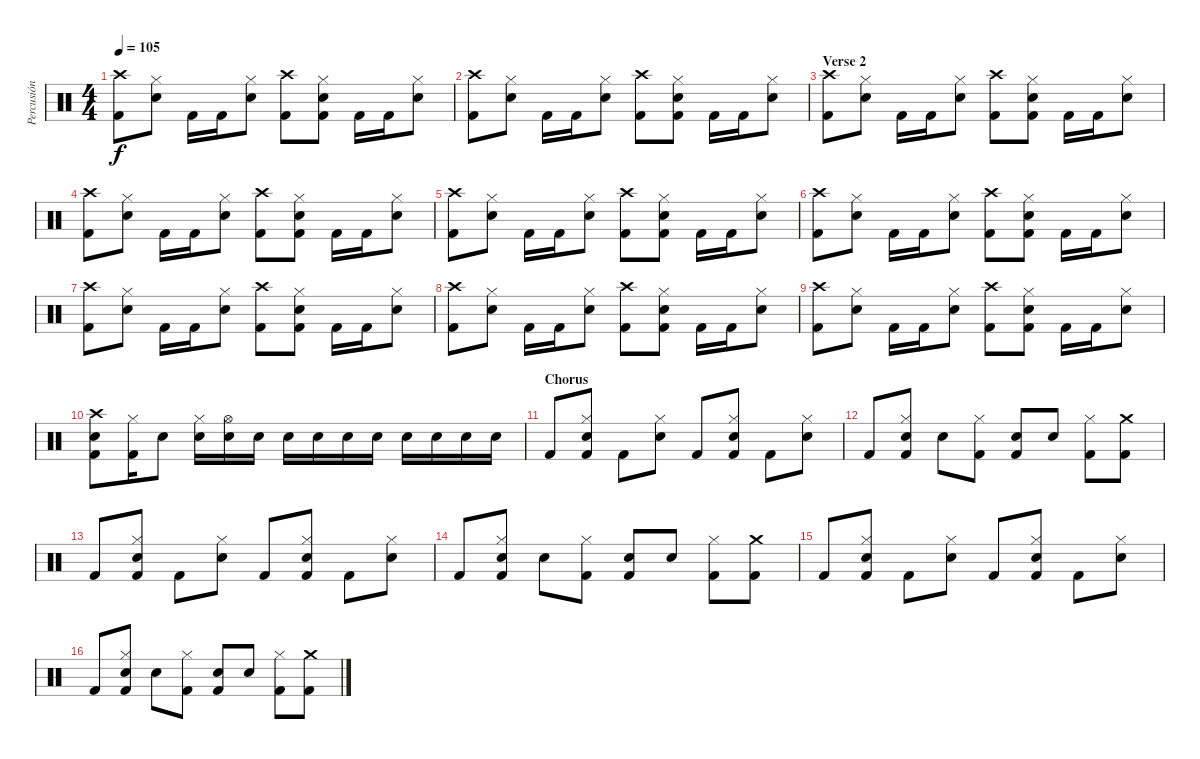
\track ("Percusión" "Percusión") {instrument percussion}
\staff {score}
\articulation defaults
\ts (4 4)
\tempo 105
\clef neutral
\ks c
("Crash high (hit)" "Kick (hit) 2").8{dy f} ("Hi-Hat (closed)" "Snare (hit) 2").8 "Kick (hit) 2".16 "Kick (hit) 2".16 ("Hi-Hat (closed)" "Snare (hit) 2").8 ("Crash high (hit)" "Kick (hit) 2").8 ("Hi-Hat (closed)" "Snare (hit) 2" "Kick (hit) 2").8 "Kick (hit) 2".16 "Kick (hit) 2".16 ("Hi-Hat (closed)" "Snare (hit) 2").8 |
("Crash high (hit)" "Kick (hit) 2").8 ("Hi-Hat (closed)" "Snare (hit) 2").8 "Kick (hit) 2".16 "Kick (hit) 2".16 ("Hi-Hat (closed)" "Snare (hit) 2").8 ("Crash high (hit)" "Kick (hit) 2").8 ("Hi-Hat (closed)" "Snare (hit) 2" "Kick (hit) 2").8 "Kick (hit) 2".16 "Kick (hit) 2".16 ("Hi-Hat (closed)" "Snare (hit) 2").8 |
\section ("" "Verse 2")
("Crash high (hit)" "Kick (hit) 2").8 ("Hi-Hat (closed)" "Snare (hit) 2").8 "Kick (hit) 2".16 "Kick (hit) 2".16 ("Hi-Hat (closed)" "Snare (hit) 2").8 ("Crash high (hit)" "Kick (hit) 2").8 ("Hi-Hat (closed)" "Snare (hit) 2" "Kick (hit) 2").8 "Kick (hit) 2".16 "Kick (hit) 2".16 ("Hi-Hat (closed)" "Snare (hit) 2").8 |
("Crash high (hit)" "Kick (hit) 2").8 ("Hi-Hat (closed)" "Snare (hit) 2").8 "Kick (hit) 2".16 "Kick (hit) 2".16 ("Hi-Hat (closed)" "Snare (hit) 2").8 ("Crash high (hit)" "Kick (hit) 2").8 ("Hi-Hat (closed)" "Snare (hit) 2" "Kick (hit) 2").8 "Kick (hit) 2".16 "Kick (hit) 2".16 ("Hi-Hat (closed)" "Snare (hit) 2").8 |
("Crash high (hit)" "Kick (hit) 2").8 ("Hi-Hat (closed)" "Snare (hit) 2").8 "Kick (hit) 2".16 "Kick (hit) 2".16 ("Hi-Hat (closed)" "Snare (hit) 2").8 ("Crash high (hit)" "Kick (hit) 2").8 ("Hi-Hat (closed)" "Snare (hit) 2" "Kick (hit) 2").8 "Kick (hit) 2".16 "Kick (hit) 2".16 ("Hi-Hat (closed)" "Snare (hit) 2").8 |
("Crash high (hit)" "Kick (hit) 2").8 ("Hi-Hat (closed)" "Snare (hit) 2").8 "Kick (hit) 2".16 "Kick (hit) 2".16 ("Hi-Hat (closed)" "Snare (hit) 2").8 ("Crash high (hit)" "Kick (hit) 2").8 ("Hi-Hat (closed)" "Snare (hit) 2" "Kick (hit) 2").8 "Kick (hit) 2".16 "Kick (hit) 2".16 ("Hi-Hat (closed)" "Snare (hit) 2").8 |
("Crash high (hit)" "Kick (hit) 2").8 ("Hi-Hat (closed)" "Snare (hit) 2").8 "Kick (hit) 2".16 "Kick (hit) 2".16 ("Hi-Hat (closed)" "Snare (hit) 2").8 ("Crash high (hit)" "Kick (hit) 2").8 ("Hi-Hat (closed)" "Snare (hit) 2" "Kick (hit) 2").8 "Kick (hit) 2".16 "Kick (hit) 2".16 ("Hi-Hat (closed)" "Snare (hit) 2").8 |
("Crash high (hit)" "Kick (hit) 2").8 ("Hi-Hat (closed)" "Snare (hit) 2").8 "Kick (hit) 2".16 "Kick (hit) 2".16 ("Hi-Hat (closed)" "Snare (hit) 2").8 ("Crash high (hit)" "Kick (hit) 2").8 ("Hi-Hat (closed)" "Snare (hit) 2" "Kick (hit) 2").8 "Kick (hit) 2".16 "Kick (hit) 2".16 ("Hi-Hat (closed)" "Snare (hit) 2").8 |
("Crash high (hit)" "Kick (hit) 2").8 ("Hi-Hat (closed)" "Snare (hit) 2").8 "Kick (hit) 2".16 "Kick (hit) 2".16 ("Hi-Hat (closed)" "Snare (hit) 2").8 ("Crash high (hit)" "Kick (hit) 2").8 ("Hi-Hat (closed)" "Snare (hit) 2" "Kick (hit) 2").8 "Kick (hit) 2".16 "Kick (hit) 2".16 ("Hi-Hat (closed)" "Snare (hit) 2").8 |
("Crash high (hit)" "Snare (hit) 2" "Kick (hit) 2").8 ("Hi-Hat (closed)" "Kick (hit) 2").16 "Snare (hit) 2".8 ("Hi-Hat (closed)" "Snare (hit) 2").16 ("Hi-Hat (open)" "Snare (hit) 2").16 "Snare (hit) 2".16 "Snare (hit) 2".16 "Snare (hit) 2".16 "Snare (hit) 2".16 "Snare (hit) 2".16 "Snare (hit) 2".16 "Snare (hit) 2".16 "Snare (hit) 2".16 "Snare (hit) 2".16 |
\section ("" "Chorus")
"Kick (hit) 2".8 ("Hi-Hat (closed)" "Snare (hit) 2" "Kick (hit) 2").8 "Kick (hit) 2".8 ("Hi-Hat (closed)" "Snare (hit) 2").8 "Kick (hit) 2".8 ("Hi-Hat (closed)" "Snare (hit) 2" "Kick (hit) 2").8 "Kick (hit) 2".8 ("Hi-Hat (closed)" "Snare (hit) 2").8 |
"Kick (hit) 2".8 ("Hi-Hat (closed)" "Snare (hit) 2" "Kick (hit) 2").8 "Snare (hit) 2".8 ("Hi-Hat (closed)" "Kick (hit) 2").8 ("Snare (hit) 2" "Kick (hit) 2").8 "Snare (hit) 2".8 ("Hi-Hat (closed)" "Kick (hit) 2").8 ("Crash medium (hit)" "Kick (hit) 2").8 |
"Kick (hit) 2".8 ("Hi-Hat (closed)" "Snare (hit) 2" "Kick (hit) 2").8 "Kick (hit) 2".8 ("Hi-Hat (closed)" "Snare (hit) 2").8 "Kick (hit) 2".8 ("Hi-Hat (closed)" "Snare (hit) 2" "Kick (hit) 2").8 "Kick (hit) 2".8 ("Hi-Hat (closed)" "Snare (hit) 2").8 |
"Kick (hit) 2".8 ("Hi-Hat (closed)" "Snare (hit) 2" "Kick (hit) 2").8 "Snare (hit) 2".8 ("Hi-Hat (closed)" "Kick (hit) 2").8 ("Snare (hit) 2" "Kick (hit) 2").8 "Snare (hit) 2".8 ("Hi-Hat (closed)" "Kick (hit) 2").8 ("Crash medium (hit)" "Kick (hit) 2").8 |
"Kick (hit) 2".8 ("Hi-Hat (closed)" "Snare (hit) 2" "Kick (hit) 2").8 "Kick (hit) 2".8 ("Hi-Hat (closed)" "Snare (hit) 2").8 "Kick (hit) 2".8 ("Hi-Hat (closed)" "Snare (hit) 2" "Kick (hit) 2").8 "Kick (hit) 2".8 ("Hi-Hat (closed)" "Snare (hit) 2").8 |
"Kick (hit) 2".8 ("Hi-Hat (closed)" "Snare (hit) 2" "Kick (hit) 2").8 "Snare (hit) 2".8 ("Hi-Hat (closed)" "Kick (hit) 2").8 ("Snare (hit) 2" "Kick (hit) 2").8 "Snare (hit) 2".8 ("Hi-Hat (closed)" "Kick (hit) 2").8 ("Crash medium (hit)" "Kick (hit) 2").8
